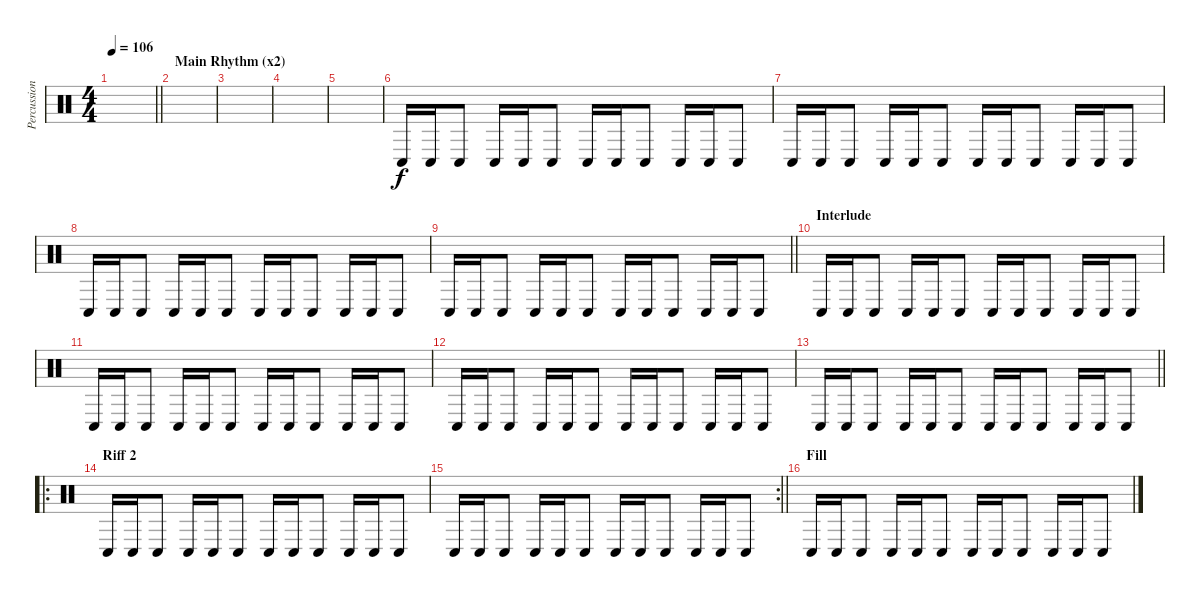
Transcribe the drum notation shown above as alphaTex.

\track ("Percussion 2" "Percussion") {instrument percussion}
\staff {score}
\articulation defaults
\ts (4 4)
\tempo 106
\clef neutral
\barLineRight lightlight
\ks c
|
\section ("" "Main Rhythm (x2)")
|
|
|
|
"Conga low (hit)".16 "Conga low (hit)".16 "Conga low (hit)".8 "Conga low (hit)".16 "Conga low (hit)".16 "Conga low (hit)".8 "Conga low (hit)".16 "Conga low (hit)".16 "Conga low (hit)".8 "Conga low (hit)".16 "Conga low (hit)".16 "Conga low (hit)".8 |
"Conga low (hit)".16 "Conga low (hit)".16 "Conga low (hit)".8 "Conga low (hit)".16 "Conga low (hit)".16 "Conga low (hit)".8 "Conga low (hit)".16 "Conga low (hit)".16 "Conga low (hit)".8 "Conga low (hit)".16 "Conga low (hit)".16 "Conga low (hit)".8 |
"Conga low (hit)".16 "Conga low (hit)".16 "Conga low (hit)".8 "Conga low (hit)".16 "Conga low (hit)".16 "Conga low (hit)".8 "Conga low (hit)".16 "Conga low (hit)".16 "Conga low (hit)".8 "Conga low (hit)".16 "Conga low (hit)".16 "Conga low (hit)".8 |
\barLineRight lightlight "Conga low (hit)".16 "Conga low (hit)".16 "Conga low (hit)".8 "Conga low (hit)".16 "Conga low (hit)".16 "Conga low (hit)".8 "Conga low (hit)".16 "Conga low (hit)".16 "Conga low (hit)".8 "Conga low (hit)".16 "Conga low (hit)".16 "Conga low (hit)".8
|
\section ("" "Interlude")
"Conga low (hit)".16 "Conga low (hit)".16 "Conga low (hit)".8 "Conga low (hit)".16 "Conga low (hit)".16 "Conga low (hit)".8 "Conga low (hit)".16 "Conga low (hit)".16 "Conga low (hit)".8 "Conga low (hit)".16 "Conga low (hit)".16 "Conga low (hit)".8 |
"Conga low (hit)".16 "Conga low (hit)".16 "Conga low (hit)".8 "Conga low (hit)".16 "Conga low (hit)".16 "Conga low (hit)".8 "Conga low (hit)".16 "Conga low (hit)".16 "Conga low (hit)".8 "Conga low (hit)".16 "Conga low (hit)".16 "Conga low (hit)".8 |
"Conga low (hit)".16 "Conga low (hit)".16 "Conga low (hit)".8 "Conga low (hit)".16 "Conga low (hit)".16 "Conga low (hit)".8 "Conga low (hit)".16 "Conga low (hit)".16 "Conga low (hit)".8 "Conga low (hit)".16 "Conga low (hit)".16 "Conga low (hit)".8 |
\barLineRight lightlight "Conga low (hit)".16 "Conga low (hit)".16 "Conga low (hit)".8 "Conga low (hit)".16 "Conga low (hit)".16 "Conga low (hit)".8 "Conga low (hit)".16 "Conga low (hit)".16 "Conga low (hit)".8 "Conga low (hit)".16 "Conga low (hit)".16 "Conga low (hit)".8
|
\ro
\section ("" "Riff 2")
"Conga low (hit)".16 "Conga low (hit)".16 "Conga low (hit)".8 "Conga low (hit)".16 "Conga low (hit)".16 "Conga low (hit)".8 "Conga low (hit)".16 "Conga low (hit)".16 "Conga low (hit)".8 "Conga low (hit)".16 "Conga low (hit)".16 "Conga low (hit)".8 |
\rc 2
\barLineRight lightlight "Conga low (hit)".16 "Conga low (hit)".16 "Conga low (hit)".8 "Conga low (hit)".16 "Conga low (hit)".16 "Conga low (hit)".8 "Conga low (hit)".16 "Conga low (hit)".16 "Conga low (hit)".8 "Conga low (hit)".16 "Conga low (hit)".16 "Conga low (hit)".8
|
\section ("" "Fill")
"Conga low (hit)".16 "Conga low (hit)".16 "Conga low (hit)".8 "Conga low (hit)".16 "Conga low (hit)".16 "Conga low (hit)".8 "Conga low (hit)".16 "Conga low (hit)".16 "Conga low (hit)".8 "Conga low (hit)".16 "Conga low (hit)".16 "Conga low (hit)".8
